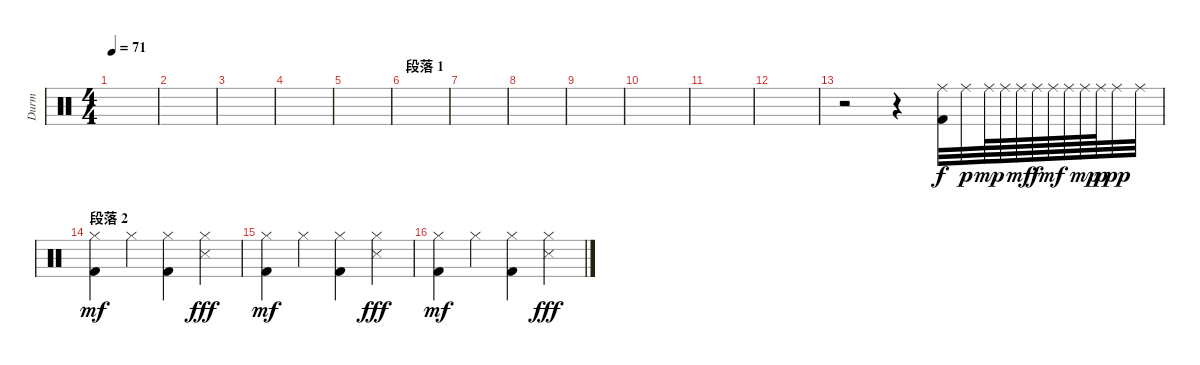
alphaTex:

\track ("Durm" "Durm") {instrument percussion}
\staff {score}
\articulation defaults
\ts (4 4)
\tempo 71
\clef neutral
\ks c
|
|
|
|
|
\section ("" "段落 1")
|
|
|
|
|
|
|
r.2 r.4 ("Ride (middle)" "Kick (hit) 2").32 "Ride (middle)".32{dy p} "Ride (middle)".64{dy mp} "Ride (middle)".64 "Ride (middle)".64{dy mf} "Ride (middle)".64{dy f} "Ride (middle)".64{dy mf} "Ride (middle)".64 "Ride (middle)".64{dy mp} "Ride (middle)".64{dy p} "Ride (middle)".32{dy pp} "Ride (middle)".32 |
\section ("" "段落 2")
("Kick (hit) 2" "Hi-Hat (closed)").4{dy mf} "Hi-Hat (closed)".4 ("Hi-Hat (closed)" "Kick (hit) 2").4 ("Hi-Hat (closed)" "Snare (side stick) 3").4{dy fff} |
("Kick (hit) 2" "Hi-Hat (closed)").4{dy mf} "Hi-Hat (closed)".4 ("Hi-Hat (closed)" "Kick (hit) 2").4 ("Hi-Hat (closed)" "Snare (side stick) 3").4{dy fff} |
("Kick (hit) 2" "Hi-Hat (closed)").4{dy mf} "Hi-Hat (closed)".4 ("Hi-Hat (closed)" "Kick (hit) 2").4 ("Hi-Hat (closed)" "Snare (side stick) 3").4{dy fff}
